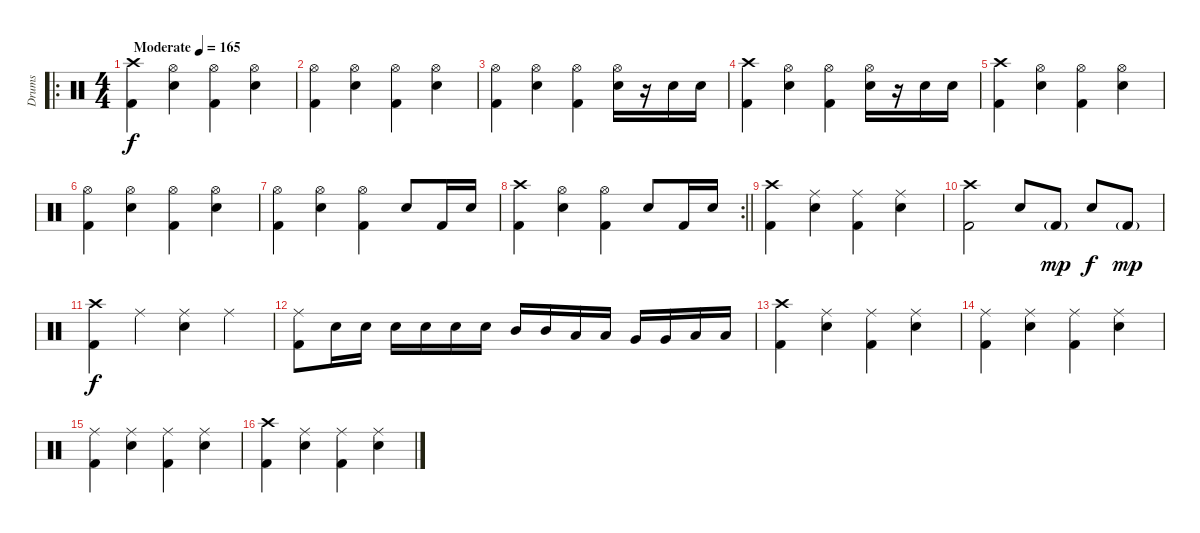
\track ("Drums" "Drums") {instrument percussion}
\staff {score}
\articulation defaults
\ro
\ts (4 4)
\tempo (165 "Moderate")
\clef neutral
\ks c
("Kick (hit) 2" "Crash high (hit)").4{dy f} ("Snare (hit) 2" "Hi-Hat (open)").4 ("Kick (hit) 2" "Hi-Hat (open)").4 ("Snare (hit) 2" "Hi-Hat (open)").4 |
("Kick (hit) 2" "Hi-Hat (open)").4 ("Snare (hit) 2" "Hi-Hat (open)").4 ("Kick (hit) 2" "Hi-Hat (open)").4 ("Snare (hit) 2" "Hi-Hat (open)").4 |
("Kick (hit) 2" "Hi-Hat (open)").4 ("Snare (hit) 2" "Hi-Hat (open)").4 ("Kick (hit) 2" "Hi-Hat (open)").4 ("Snare (hit) 2" "Hi-Hat (open)").16 r.16 "Snare (hit) 2".16 "Snare (hit) 2".16 |
("Kick (hit) 2" "Crash high (hit)").4 ("Snare (hit) 2" "Hi-Hat (open)").4 ("Kick (hit) 2" "Hi-Hat (open)").4 ("Snare (hit) 2" "Hi-Hat (open)").16 r.16 "Snare (hit) 2".16 "Snare (hit) 2".16 |
("Kick (hit) 2" "Crash high (hit)").4 ("Snare (hit) 2" "Hi-Hat (open)").4 ("Kick (hit) 2" "Hi-Hat (open)").4 ("Snare (hit) 2" "Hi-Hat (open)").4 |
("Kick (hit) 2" "Hi-Hat (open)").4 ("Snare (hit) 2" "Hi-Hat (open)").4 ("Kick (hit) 2" "Hi-Hat (open)").4 ("Snare (hit) 2" "Hi-Hat (open)").4 |
("Kick (hit) 2" "Hi-Hat (open)").4 ("Snare (hit) 2" "Hi-Hat (open)").4 ("Kick (hit) 2" "Hi-Hat (open)").4 "Snare (hit) 2".8 "Kick (hit) 2".16 "Snare (hit) 2".16 |
\rc 2
\barLineRight lightlight
("Kick (hit) 2" "Crash high (hit)").4 ("Snare (hit) 2" "Hi-Hat (open)").4 ("Kick (hit) 2" "Hi-Hat (open)").4 "Snare (hit) 2".8 "Kick (hit) 2".16 "Snare (hit) 2".16 |
\section ("" "")
("Crash high (hit)" "Kick (hit) 2").4 ("Ride (middle)" "Snare (hit) 2").4 ("Ride (middle)" "Kick (hit) 2").4 ("Ride (middle)" "Snare (hit) 2").4 |
("Kick (hit) 2" "Crash high (hit)").2 "Snare (hit) 2".8 "Kick (hit) 2"{g}.8{dy mp} "Snare (hit) 2".8{dy f} "Kick (hit) 2"{g}.8{dy mp} |
("Crash high (hit)" "Kick (hit) 2").4{dy f} "Ride (middle)".4 ("Ride (middle)" "Snare (hit) 2").4 "Ride (middle)".4 |
("Kick (hit) 2" "Ride (middle)").8 "Snare (hit) 2".16 "Snare (hit) 2".16 "Snare (hit) 2".16 "Snare (hit) 2".16 "Snare (hit) 2".16 "Snare (hit) 2".16 "Mid Tom (hit)".16 "Mid Tom (hit)".16 "Low Tom (hit)".16 "Low Tom (hit)".16 "Very Low Tom (hit)".16 "Very Low Tom (hit)".16 "Low Floor Tom (hit)".16 "Low Floor Tom (hit)".16 |
("Kick (hit) 2" "Crash high (hit)").4 ("Snare (hit) 2" "Ride (middle)").4 ("Kick (hit) 2" "Ride (middle)").4 ("Snare (hit) 2" "Ride (middle)").4 |
("Kick (hit) 2" "Ride (middle)").4 ("Snare (hit) 2" "Ride (middle)").4 ("Kick (hit) 2" "Ride (middle)").4 ("Snare (hit) 2" "Ride (middle)").4 |
("Kick (hit) 2" "Ride (middle)").4 ("Snare (hit) 2" "Ride (middle)").4 ("Kick (hit) 2" "Ride (middle)").4 ("Snare (hit) 2" "Ride (middle)").4 |
("Kick (hit) 2" "Crash high (hit)").4 ("Snare (hit) 2" "Ride (middle)").4 ("Kick (hit) 2" "Ride (middle)").4 ("Snare (hit) 2" "Ride (middle)").4
